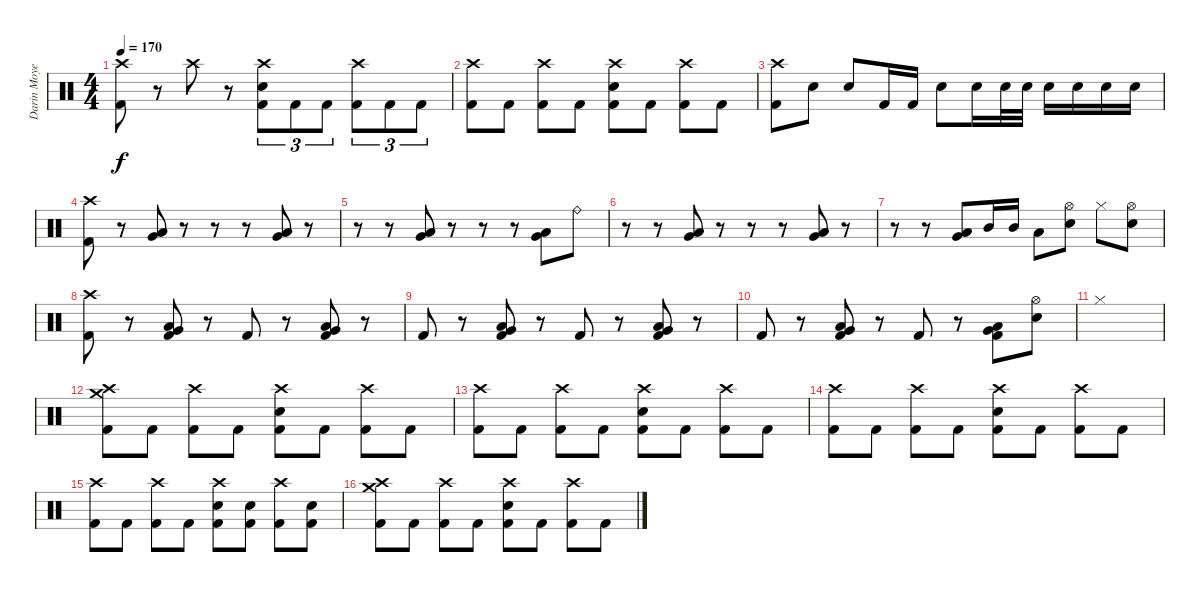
\track ("Darin Moyen" "Darin Moye") {instrument percussion}
\staff {score}
\articulation defaults
\ts (4 4)
\tempo 170
\clef neutral
\ks c
("Crash high (hit)" "Kick (hit) 2").8{dy f} r.8 "Crash high (hit)".8 r.8 ("Crash high (hit)" "Electric Snare (hit)" "Kick (hit) 2").8{tu (3 2)} "Kick (hit) 2".8{tu (3 2)} "Kick (hit) 2".8{tu (3 2)} ("Crash high (hit)" "Kick (hit) 2").8{tu (3 2)} "Kick (hit) 2".8{tu (3 2)} "Kick (hit) 2".8{tu (3 2)} |
("Crash high (hit)" "Kick (hit) 2").8 "Kick (hit) 2".8 ("Crash high (hit)" "Kick (hit) 2").8 "Kick (hit) 2".8 ("Crash high (hit)" "Electric Snare (hit)" "Kick (hit) 2").8 "Kick (hit) 2".8 ("Crash high (hit)" "Kick (hit) 2").8 "Kick (hit) 2".8 |
("Crash high (hit)" "Kick (hit) 2").8 "Electric Snare (hit)".8 "Electric Snare (hit)".8 "Kick (hit) 2".16 "Kick (hit) 2".16 "Electric Snare (hit)".8 "Electric Snare (hit)".16 "Electric Snare (hit)".32 "Electric Snare (hit)".32 "Electric Snare (hit)".16 "Electric Snare (hit)".16 "Electric Snare (hit)".16 "Electric Snare (hit)".16 |
("Crash high (hit)" "Kick (hit) 2").8 r.8 ("Low Tom (hit)" "Very Low Tom (hit)").8 r.8 r.8 r.8 ("Low Tom (hit)" "Very Low Tom (hit)").8 r.8 |
r.8 r.8 ("Low Tom (hit)" "Very Low Tom (hit)").8 r.8 r.8 r.8 ("Low Tom (hit)" "Very Low Tom (hit)").8 "Ride (bell)".8 |
r.8 r.8 ("Low Tom (hit)" "Very Low Tom (hit)").8 r.8 r.8 r.8 ("Low Tom (hit)" "Very Low Tom (hit)").8 r.8 |
r.8 r.8 ("Very Low Tom (hit)" "Low Tom (hit)").8 "Mid Tom (hit)".16 "Mid Tom (hit)".16 "Low Tom (hit)".8 ("Hi-Hat (open)" "Electric Snare (hit)").8 "Hi-Hat (closed)".8 ("Hi-Hat (open)" "Electric Snare (hit)").8 |
("Crash high (hit)" "Kick (hit) 2").8 r.8 ("Low Tom (hit)" "Very Low Tom (hit)" "Kick (hit) 2").8 r.8 "Kick (hit) 2".8 r.8 ("Low Tom (hit)" "Very Low Tom (hit)" "Kick (hit) 2").8 r.8 |
"Kick (hit) 2".8 r.8 ("Low Tom (hit)" "Very Low Tom (hit)" "Kick (hit) 2").8 r.8 "Kick (hit) 2".8 r.8 ("Low Tom (hit)" "Very Low Tom (hit)" "Kick (hit) 2").8 r.8 |
"Kick (hit) 2".8 r.8 ("Low Tom (hit)" "Very Low Tom (hit)" "Kick (hit) 2").8 r.8 "Kick (hit) 2".8 r.8 ("Low Tom (hit)" "Very Low Tom (hit)" "Kick (hit) 2").8 ("Electric Snare (hit)" "Hi-Hat (open)").8 |
"Hi-Hat (closed)".1 |
("Crash medium (hit)" "Crash high (hit)" "Kick (hit) 2").8 "Kick (hit) 2".8 ("Crash high (hit)" "Kick (hit) 2").8 "Kick (hit) 2".8 ("Crash high (hit)" "Electric Snare (hit)" "Kick (hit) 2").8 "Kick (hit) 2".8 ("Crash high (hit)" "Kick (hit) 2").8 "Kick (hit) 2".8 |
("Crash high (hit)" "Kick (hit) 2").8 "Kick (hit) 2".8 ("Crash high (hit)" "Kick (hit) 2").8 "Kick (hit) 2".8 ("Crash high (hit)" "Electric Snare (hit)" "Kick (hit) 2").8 "Kick (hit) 2".8 ("Crash high (hit)" "Kick (hit) 2").8 "Kick (hit) 2".8 |
("Crash high (hit)" "Kick (hit) 2").8 "Kick (hit) 2".8 ("Crash high (hit)" "Kick (hit) 2").8 "Kick (hit) 2".8 ("Crash high (hit)" "Electric Snare (hit)" "Kick (hit) 2").8 "Kick (hit) 2".8 ("Crash high (hit)" "Kick (hit) 2").8 "Kick (hit) 2".8 |
("Crash high (hit)" "Kick (hit) 2").8 "Kick (hit) 2".8 ("Crash high (hit)" "Kick (hit) 2").8 "Kick (hit) 2".8 ("Crash high (hit)" "Electric Snare (hit)" "Kick (hit) 2").8 ("Electric Snare (hit)" "Kick (hit) 2").8 ("Crash high (hit)" "Kick (hit) 2").8 ("Electric Snare (hit)" "Kick (hit) 2").8 |
("Crash medium (hit)" "Crash high (hit)" "Kick (hit) 2").8 "Kick (hit) 2".8 ("Crash high (hit)" "Kick (hit) 2").8 "Kick (hit) 2".8 ("Crash high (hit)" "Electric Snare (hit)" "Kick (hit) 2").8 "Kick (hit) 2".8 ("Crash high (hit)" "Kick (hit) 2").8 "Kick (hit) 2".8
